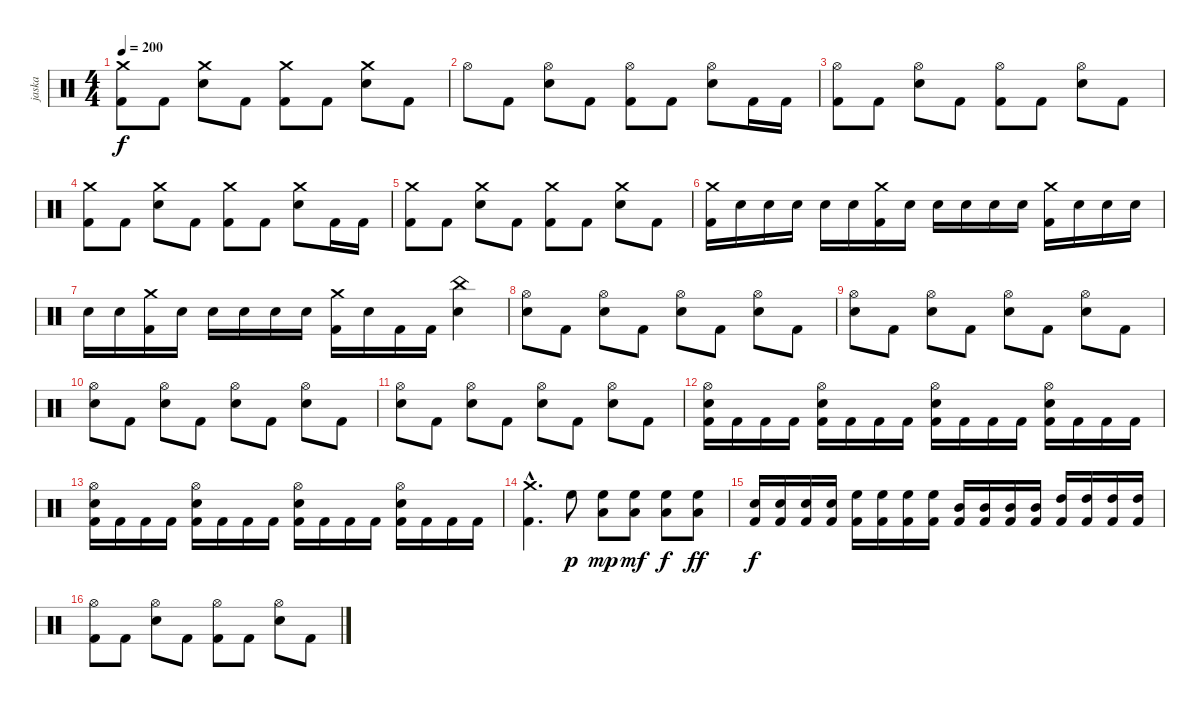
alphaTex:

\track ("jaska" "jaska") {instrument percussion}
\staff {score}
\articulation defaults
\ts (4 4)
\tempo 200
\clef neutral
\ks c
("Crash medium (hit)" "Kick (hit) 2").8{dy f} "Kick (hit) 2".8 ("Crash medium (hit)" "Snare (hit) 2").8 "Kick (hit) 2".8 ("Crash medium (hit)" "Kick (hit) 2").8 "Kick (hit) 2".8 ("Crash medium (hit)" "Snare (hit) 2").8 "Kick (hit) 2".8 |
"Hi-Hat (open)".8 "Kick (hit) 2".8 ("Hi-Hat (open)" "Snare (hit) 2").8 "Kick (hit) 2".8 ("Hi-Hat (open)" "Kick (hit) 2").8 "Kick (hit) 2".8 ("Hi-Hat (open)" "Snare (hit) 2").8 "Kick (hit) 2".16 "Kick (hit) 2".16 |
("Hi-Hat (open)" "Kick (hit) 2").8 "Kick (hit) 2".8 ("Hi-Hat (open)" "Snare (hit) 2").8 "Kick (hit) 2".8 ("Hi-Hat (open)" "Kick (hit) 2").8 "Kick (hit) 2".8 ("Hi-Hat (open)" "Snare (hit) 2").8 "Kick (hit) 2".8 |
("Crash medium (hit)" "Kick (hit) 2").8 "Kick (hit) 2".8 ("Crash medium (hit)" "Snare (hit) 2").8 "Kick (hit) 2".8 ("Crash medium (hit)" "Kick (hit) 2").8 "Kick (hit) 2".8 ("Crash medium (hit)" "Snare (hit) 2").8 "Kick (hit) 2".16 "Kick (hit) 2".16 |
("Crash medium (hit)" "Kick (hit) 2").8 "Kick (hit) 2".8 ("Crash medium (hit)" "Snare (hit) 2").8 "Kick (hit) 2".8 ("Crash medium (hit)" "Kick (hit) 2").8 "Kick (hit) 2".8 ("Crash medium (hit)" "Snare (hit) 2").8 "Kick (hit) 2".8 |
("Crash medium (hit)" "Kick (hit) 2").16 "Snare (hit) 2".16 "Snare (hit) 2".16 "Snare (hit) 2".16 "Snare (hit) 2".16 "Snare (hit) 2".16 ("Crash medium (hit)" "Kick (hit) 2").16 "Snare (hit) 2".16 "Snare (hit) 2".16 "Snare (hit) 2".16 "Snare (hit) 2".16 "Snare (hit) 2".16 ("Crash medium (hit)" "Kick (hit) 2").16 "Snare (hit) 2".16 "Snare (hit) 2".16 "Snare (hit) 2".16 |
"Snare (hit) 2".16 "Snare (hit) 2".16 ("Crash medium (hit)" "Kick (hit) 2").16 "Snare (hit) 2".16 "Snare (hit) 2".16 "Snare (hit) 2".16 "Snare (hit) 2".16 "Snare (hit) 2".16 ("Crash medium (hit)" "Kick (hit) 2").16 "Snare (hit) 2".16 "Kick (hit) 2".16 "Kick (hit) 2".16 ("China (hit)" "Snare (hit) 2").4 |
("Hi-Hat (open)" "Snare (hit) 2").8 "Kick (hit) 2".8 ("Hi-Hat (open)" "Snare (hit) 2").8 "Kick (hit) 2".8 ("Hi-Hat (open)" "Snare (hit) 2").8 "Kick (hit) 2".8 ("Hi-Hat (open)" "Snare (hit) 2").8 "Kick (hit) 2".8 |
("Hi-Hat (open)" "Snare (hit) 2").8 "Kick (hit) 2".8 ("Hi-Hat (open)" "Snare (hit) 2").8 "Kick (hit) 2".8 ("Hi-Hat (open)" "Snare (hit) 2").8 "Kick (hit) 2".8 ("Hi-Hat (open)" "Snare (hit) 2").8 "Kick (hit) 2".8 |
("Hi-Hat (open)" "Snare (hit) 2").8 "Kick (hit) 2".8 ("Hi-Hat (open)" "Snare (hit) 2").8 "Kick (hit) 2".8 ("Hi-Hat (open)" "Snare (hit) 2").8 "Kick (hit) 2".8 ("Hi-Hat (open)" "Snare (hit) 2").8 "Kick (hit) 2".8 |
("Hi-Hat (open)" "Snare (hit) 2").8 "Kick (hit) 2".8 ("Hi-Hat (open)" "Snare (hit) 2").8 "Kick (hit) 2".8 ("Hi-Hat (open)" "Snare (hit) 2").8 "Kick (hit) 2".8 ("Hi-Hat (open)" "Snare (hit) 2").8 "Kick (hit) 2".8 |
("Hi-Hat (open)" "Snare (hit) 2" "Kick (hit) 2").16 "Kick (hit) 2".16 "Kick (hit) 2".16 "Kick (hit) 2".16 ("Hi-Hat (open)" "Snare (hit) 2" "Kick (hit) 2").16 "Kick (hit) 2".16 "Kick (hit) 2".16 "Kick (hit) 2".16 ("Hi-Hat (open)" "Snare (hit) 2" "Kick (hit) 2").16 "Kick (hit) 2".16 "Kick (hit) 2".16 "Kick (hit) 2".16 ("Hi-Hat (open)" "Snare (hit) 2" "Kick (hit) 2").16 "Kick (hit) 2".16 "Kick (hit) 2".16 "Kick (hit) 2".16 |
("Hi-Hat (open)" "Snare (hit) 2" "Kick (hit) 2").16 "Kick (hit) 2".16 "Kick (hit) 2".16 "Kick (hit) 2".16 ("Hi-Hat (open)" "Snare (hit) 2" "Kick (hit) 2").16 "Kick (hit) 2".16 "Kick (hit) 2".16 "Kick (hit) 2".16 ("Hi-Hat (open)" "Snare (hit) 2" "Kick (hit) 2").16 "Kick (hit) 2".16 "Kick (hit) 2".16 "Kick (hit) 2".16 ("Hi-Hat (open)" "Snare (hit) 2" "Kick (hit) 2").16 "Kick (hit) 2".16 "Kick (hit) 2".16 "Kick (hit) 2".16 |
("Crash medium (hit)"{hac} "Kick (hit) 2"{hac}).4{d} "High Floor Tom (hit)".8{dy p} ("Low Tom (hit)" "High Floor Tom (hit)").8{dy mp} ("Low Tom (hit)" "High Floor Tom (hit)").8{dy mf} ("Low Tom (hit)" "High Floor Tom (hit)").8{dy f} ("Low Tom (hit)" "High Floor Tom (hit)").8{dy ff} |
("Snare (hit) 2" "Kick (hit) 2").16{dy f} ("Snare (hit) 2" "Kick (hit) 2").16 ("Snare (hit) 2" "Kick (hit) 2").16 ("Snare (hit) 2" "Kick (hit) 2").16 ("High Floor Tom (hit)" "Kick (hit) 2").16 ("High Floor Tom (hit)" "Kick (hit) 2").16 ("High Floor Tom (hit)" "Kick (hit) 2").16 ("High Floor Tom (hit)" "Kick (hit) 2").16 ("Mid Tom (hit)" "Kick (hit) 2").16 ("Mid Tom (hit)" "Kick (hit) 2").16 ("Mid Tom (hit)" "Kick (hit) 2").16 ("Mid Tom (hit)" "Kick (hit) 2").16 ("High Tom (hit)" "Kick (hit) 2").16 ("High Tom (hit)" "Kick (hit) 2").16 ("High Tom (hit)" "Kick (hit) 2").16 ("High Tom (hit)" "Kick (hit) 2").16 |
("Hi-Hat (open)" "Kick (hit) 2").8 "Kick (hit) 2".8 ("Hi-Hat (open)" "Electric Snare (hit)").8 "Kick (hit) 2".8 ("Hi-Hat (open)" "Kick (hit) 2").8 "Kick (hit) 2".8 ("Hi-Hat (open)" "Electric Snare (hit)").8 "Kick (hit) 2".8
